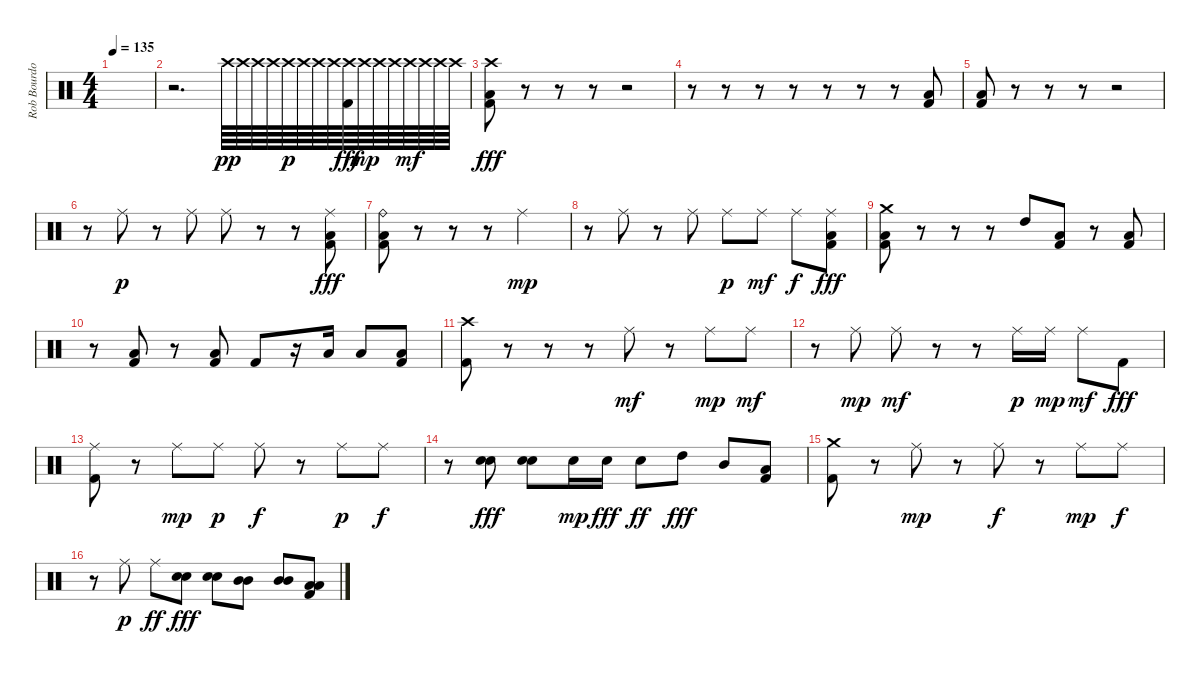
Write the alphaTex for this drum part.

\track ("Rob Bourdon - Beats & Drums" "Rob Bourdo") {instrument percussion}
\staff {score}
\articulation defaults
\ts (4 4)
\tempo 135
\clef neutral
\ks c
|
r.2{d} "Crash high (hit)".64{dy pp} "Crash high (hit)".64 "Crash high (hit)".64 "Crash high (hit)".64 "Crash high (hit)".64{dy p} "Crash high (hit)".64 "Crash high (hit)".64 "Crash high (hit)".64 ("Crash high (hit)" "Kick (hit) 2").64{dy fff} "Crash high (hit)".64{dy mp} "Crash high (hit)".64 "Crash high (hit)".64 "Crash high (hit)".64{dy mf} "Crash high (hit)".64 "Crash high (hit)".64 "Crash high (hit)".64 |
("Crash high (hit)" "Low Floor Tom (hit)" "Kick (hit) 2").8{dy fff} r.8 r.8 r.8 r.2 |
r.8 r.8 r.8 r.8 r.8 r.8 r.8 ("Low Floor Tom (hit)" "Kick (hit) 2").8 |
("Low Floor Tom (hit)" "Kick (hit) 2").8 r.8 r.8 r.8 r.2 |
r.8 "Ride (middle)".8{dy p} r.8 "Ride (middle)".8 "Ride (middle)".8 r.8 r.8 ("Ride (middle)" "Low Floor Tom (hit)" "Kick (hit) 2").8{dy fff} |
("Ride (bell)" "Low Floor Tom (hit)" "Kick (hit) 2").8 r.8 r.8 r.8 "Ride (middle)".2{dy mp} |
r.8 "Ride (middle)".8 r.8 "Ride (middle)".8 "Ride (middle)".8{dy p} "Ride (middle)".8{dy mf} "Ride (middle)".8{dy f} ("Ride (middle)" "Low Floor Tom (hit)" "Kick (hit) 2").8{dy fff} |
("Crash medium (hit)" "Low Floor Tom (hit)" "Kick (hit) 2").8 r.8 r.8 r.8 "High Tom (hit)".8 ("Low Tom (hit)" "Kick (hit) 2").8 r.8 ("Low Tom (hit)" "Kick (hit) 2").8 |
r.8 ("Low Tom (hit)" "Kick (hit) 2").8 r.8 ("Low Tom (hit)" "Kick (hit) 2").8 "Kick (hit) 2".8 r.16 "Low Tom (hit)".16 "Low Tom (hit)".8 ("Low Tom (hit)" "Kick (hit) 2").8 |
("Crash high (hit)" "Kick (hit) 2").8 r.8 r.8 r.8 "Ride (middle)".8{dy mf} r.8 "Ride (middle)".8{dy mp} "Ride (middle)".8{dy mf} |
r.8 "Ride (middle)".8{dy mp} "Ride (middle)".8{dy mf} r.8 r.8 "Ride (middle)".16{dy p} "Ride (middle)".16{dy mp} "Ride (middle)".8{dy mf} "Kick (hit) 2".8{dy fff} |
("Ride (middle)" "Kick (hit) 2").8 r.8 "Ride (middle)".8{dy mp} "Ride (middle)".8{dy p} "Ride (middle)".8{dy f} r.8 "Ride (middle)".8{dy p} "Ride (middle)".8{dy f} |
r.8 ("Electric Snare (hit)" "Electric Snare (hit)").8{dy fff} ("Electric Snare (hit)" "Electric Snare (hit)").8 "Electric Snare (hit)".16{dy mp} "Electric Snare (hit)".16{dy fff} "Electric Snare (hit)".8{dy ff} "High Tom (hit)".8{dy fff} "Mid Tom (hit)".8 ("Low Tom (hit)" "Kick (hit) 2").8 |
("Crash medium (hit)" "Kick (hit) 2").8 r.8 "Ride (middle)".8{dy mp} r.8 "Ride (middle)".8{dy f} r.8 "Ride (middle)".8{dy mp} "Ride (middle)".8{dy f} |
r.8 "Ride (middle)".8{dy p} "Ride (middle)".8{dy ff} ("Electric Snare (hit)" "Electric Snare (hit)").8{dy fff} ("Electric Snare (hit)" "Electric Snare (hit)").8 ("Mid Tom (hit)" "Mid Tom (hit)").8 ("Mid Tom (hit)" "Mid Tom (hit)").8 ("Low Tom (hit)" "Low Tom (hit)" "Kick (hit) 2").8
